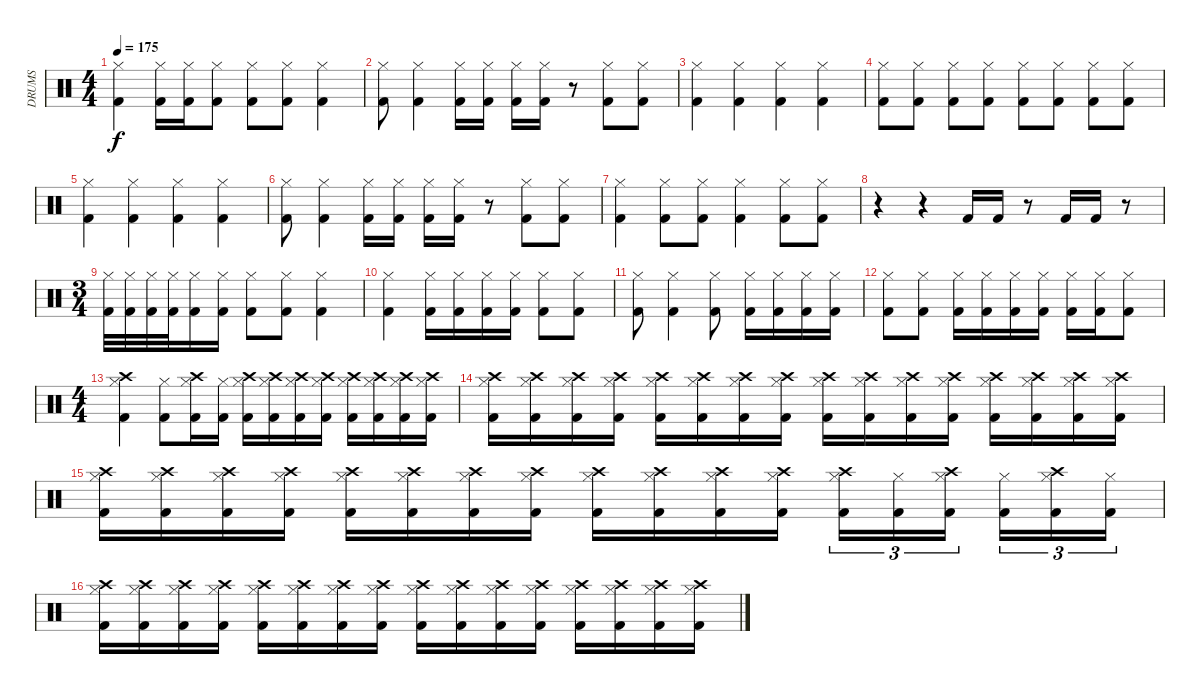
\track ("DRUMS" "DRUMS") {instrument percussion}
\staff {score}
\articulation defaults
\ts (4 4)
\tempo 175
\clef neutral
\ks c
("Kick (hit) 2" "Hi-Hat (closed)").4{dy f} ("Kick (hit) 2" "Hi-Hat (closed)").16 ("Kick (hit) 2" "Hi-Hat (closed)").16 ("Kick (hit) 2" "Hi-Hat (closed)").8 ("Kick (hit) 2" "Hi-Hat (closed)").8 ("Kick (hit) 2" "Hi-Hat (closed)").8 ("Kick (hit) 2" "Hi-Hat (closed)").4 |
("Kick (hit) 2" "Hi-Hat (closed)").8 ("Kick (hit) 2" "Hi-Hat (closed)").4 ("Kick (hit) 2" "Hi-Hat (closed)").16 ("Kick (hit) 2" "Hi-Hat (closed)").16 ("Kick (hit) 2" "Hi-Hat (closed)").16 ("Kick (hit) 2" "Hi-Hat (closed)").16 r.8 ("Kick (hit) 2" "Hi-Hat (closed)").8 ("Kick (hit) 2" "Hi-Hat (closed)").8 |
("Kick (hit) 2" "Hi-Hat (closed)").4 ("Kick (hit) 2" "Hi-Hat (closed)").4 ("Kick (hit) 2" "Hi-Hat (closed)").4 ("Kick (hit) 2" "Hi-Hat (closed)").4 |
("Kick (hit) 2" "Hi-Hat (closed)").8 ("Kick (hit) 2" "Hi-Hat (closed)").8 ("Kick (hit) 2" "Hi-Hat (closed)").8 ("Kick (hit) 2" "Hi-Hat (closed)").8 ("Kick (hit) 2" "Hi-Hat (closed)").8 ("Kick (hit) 2" "Hi-Hat (closed)").8 ("Kick (hit) 2" "Hi-Hat (closed)").8 ("Kick (hit) 2" "Hi-Hat (closed)").8 |
("Kick (hit) 2" "Hi-Hat (closed)").4 ("Kick (hit) 2" "Hi-Hat (closed)").4 ("Kick (hit) 2" "Hi-Hat (closed)").4 ("Kick (hit) 2" "Hi-Hat (closed)").4 |
("Kick (hit) 2" "Hi-Hat (closed)").8 ("Kick (hit) 2" "Hi-Hat (closed)").4 ("Kick (hit) 2" "Hi-Hat (closed)").16 ("Kick (hit) 2" "Hi-Hat (closed)").16 ("Kick (hit) 2" "Hi-Hat (closed)").16 ("Kick (hit) 2" "Hi-Hat (closed)").16 r.8 ("Kick (hit) 2" "Hi-Hat (closed)").8 ("Kick (hit) 2" "Hi-Hat (closed)").8 |
("Kick (hit) 2" "Hi-Hat (closed)").4 ("Kick (hit) 2" "Hi-Hat (closed)").8 ("Kick (hit) 2" "Hi-Hat (closed)").8 ("Kick (hit) 2" "Hi-Hat (closed)").4 ("Kick (hit) 2" "Hi-Hat (closed)").8 ("Kick (hit) 2" "Hi-Hat (closed)").8 |
r.4 r.4 "Kick (hit) 2".16 "Kick (hit) 2".16 r.8 "Kick (hit) 2".16 "Kick (hit) 2".16 r.8 |
\ts (3 4)
("Kick (hit) 2" "Hi-Hat (closed)").32 ("Kick (hit) 2" "Hi-Hat (closed)").32 ("Kick (hit) 2" "Hi-Hat (closed)").32 ("Kick (hit) 2" "Hi-Hat (closed)").32 ("Kick (hit) 2" "Hi-Hat (closed)").16 ("Kick (hit) 2" "Hi-Hat (closed)").16 ("Kick (hit) 2" "Hi-Hat (closed)").8 ("Kick (hit) 2" "Hi-Hat (closed)").8 ("Kick (hit) 2" "Hi-Hat (closed)").4 |
("Kick (hit) 2" "Hi-Hat (closed)").4 ("Kick (hit) 2" "Hi-Hat (closed)").16 ("Kick (hit) 2" "Hi-Hat (closed)").16 ("Kick (hit) 2" "Hi-Hat (closed)").16 ("Kick (hit) 2" "Hi-Hat (closed)").16 ("Kick (hit) 2" "Hi-Hat (closed)").8 ("Kick (hit) 2" "Hi-Hat (closed)").8 |
("Kick (hit) 2" "Hi-Hat (closed)").8 ("Kick (hit) 2" "Hi-Hat (closed)").4 ("Kick (hit) 2" "Hi-Hat (closed)").8 ("Kick (hit) 2" "Hi-Hat (closed)").16 ("Kick (hit) 2" "Hi-Hat (closed)").16 ("Kick (hit) 2" "Hi-Hat (closed)").16 ("Kick (hit) 2" "Hi-Hat (closed)").16 |
("Kick (hit) 2" "Hi-Hat (closed)").8 ("Kick (hit) 2" "Hi-Hat (closed)").8 ("Kick (hit) 2" "Hi-Hat (closed)").16 ("Kick (hit) 2" "Hi-Hat (closed)").16 ("Kick (hit) 2" "Hi-Hat (closed)").16 ("Kick (hit) 2" "Hi-Hat (closed)").16 ("Kick (hit) 2" "Hi-Hat (closed)").16 ("Kick (hit) 2" "Hi-Hat (closed)").16 ("Kick (hit) 2" "Hi-Hat (closed)").8 |
\ts (4 4)
("Crash high (hit)" "Kick (hit) 2" "Hi-Hat (closed)").4 ("Kick (hit) 2" "Hi-Hat (closed)").8 ("Crash high (hit)" "Kick (hit) 2" "Hi-Hat (closed)").16 ("Kick (hit) 2" "Hi-Hat (closed)").16 ("Crash high (hit)" "Kick (hit) 2" "Hi-Hat (closed)").16 ("Crash high (hit)" "Kick (hit) 2" "Hi-Hat (closed)").16 ("Crash high (hit)" "Kick (hit) 2" "Hi-Hat (closed)").16 ("Crash high (hit)" "Kick (hit) 2" "Hi-Hat (closed)").16 ("Crash high (hit)" "Kick (hit) 2" "Hi-Hat (closed)").16 ("Crash high (hit)" "Kick (hit) 2" "Hi-Hat (closed)").16 ("Crash high (hit)" "Kick (hit) 2" "Hi-Hat (closed)").16 ("Crash high (hit)" "Kick (hit) 2" "Hi-Hat (closed)").16 |
("Crash high (hit)" "Kick (hit) 2" "Hi-Hat (closed)").16 ("Crash high (hit)" "Kick (hit) 2" "Hi-Hat (closed)").16 ("Crash high (hit)" "Kick (hit) 2" "Hi-Hat (closed)").16 ("Crash high (hit)" "Kick (hit) 2" "Hi-Hat (closed)").16 ("Crash high (hit)" "Kick (hit) 2" "Hi-Hat (closed)").16 ("Crash high (hit)" "Kick (hit) 2" "Hi-Hat (closed)").16 ("Crash high (hit)" "Kick (hit) 2" "Hi-Hat (closed)").16 ("Crash high (hit)" "Kick (hit) 2" "Hi-Hat (closed)").16 ("Crash high (hit)" "Kick (hit) 2" "Hi-Hat (closed)").16 ("Crash high (hit)" "Kick (hit) 2" "Hi-Hat (closed)").16 ("Crash high (hit)" "Kick (hit) 2" "Hi-Hat (closed)").16 ("Crash high (hit)" "Kick (hit) 2" "Hi-Hat (closed)").16 ("Crash high (hit)" "Kick (hit) 2" "Hi-Hat (closed)").16 ("Crash high (hit)" "Kick (hit) 2" "Hi-Hat (closed)").16 ("Crash high (hit)" "Kick (hit) 2" "Hi-Hat (closed)").16 ("Crash high (hit)" "Kick (hit) 2" "Hi-Hat (closed)").16 |
("Crash high (hit)" "Kick (hit) 2" "Hi-Hat (closed)").16 ("Crash high (hit)" "Kick (hit) 2" "Hi-Hat (closed)").16 ("Crash high (hit)" "Kick (hit) 2" "Hi-Hat (closed)").16 ("Crash high (hit)" "Kick (hit) 2" "Hi-Hat (closed)").16 ("Crash high (hit)" "Kick (hit) 2" "Hi-Hat (closed)").16 ("Crash high (hit)" "Kick (hit) 2" "Hi-Hat (closed)").16 ("Crash high (hit)" "Kick (hit) 2" "Hi-Hat (closed)").16 ("Crash high (hit)" "Kick (hit) 2" "Hi-Hat (closed)").16 ("Crash high (hit)" "Kick (hit) 2" "Hi-Hat (closed)").16 ("Crash high (hit)" "Kick (hit) 2" "Hi-Hat (closed)").16 ("Crash high (hit)" "Kick (hit) 2" "Hi-Hat (closed)").16 ("Crash high (hit)" "Kick (hit) 2" "Hi-Hat (closed)").16 ("Crash high (hit)" "Kick (hit) 2" "Hi-Hat (closed)").16{tu (3 2)} ("Kick (hit) 2" "Hi-Hat (closed)").16{tu (3 2)} ("Crash high (hit)" "Kick (hit) 2" "Hi-Hat (closed)").16{tu (3 2)} ("Kick (hit) 2" "Hi-Hat (closed)").16{tu (3 2)} ("Crash high (hit)" "Kick (hit) 2" "Hi-Hat (closed)").16{tu (3 2)} ("Kick (hit) 2" "Hi-Hat (closed)").16{tu (3 2)} |
("Crash high (hit)" "Kick (hit) 2" "Hi-Hat (closed)").16 ("Crash high (hit)" "Kick (hit) 2" "Hi-Hat (closed)").16 ("Crash high (hit)" "Kick (hit) 2" "Hi-Hat (closed)").16 ("Crash high (hit)" "Kick (hit) 2" "Hi-Hat (closed)").16 ("Crash high (hit)" "Kick (hit) 2" "Hi-Hat (closed)").16 ("Crash high (hit)" "Kick (hit) 2" "Hi-Hat (closed)").16 ("Crash high (hit)" "Kick (hit) 2" "Hi-Hat (closed)").16 ("Crash high (hit)" "Kick (hit) 2" "Hi-Hat (closed)").16 ("Crash high (hit)" "Kick (hit) 2" "Hi-Hat (closed)").16 ("Crash high (hit)" "Kick (hit) 2" "Hi-Hat (closed)").16 ("Crash high (hit)" "Kick (hit) 2" "Hi-Hat (closed)").16 ("Crash high (hit)" "Kick (hit) 2" "Hi-Hat (closed)").16 ("Crash high (hit)" "Kick (hit) 2" "Hi-Hat (closed)").16 ("Crash high (hit)" "Kick (hit) 2" "Hi-Hat (closed)").16 ("Crash high (hit)" "Kick (hit) 2" "Hi-Hat (closed)").16 ("Crash high (hit)" "Kick (hit) 2" "Hi-Hat (closed)").16
